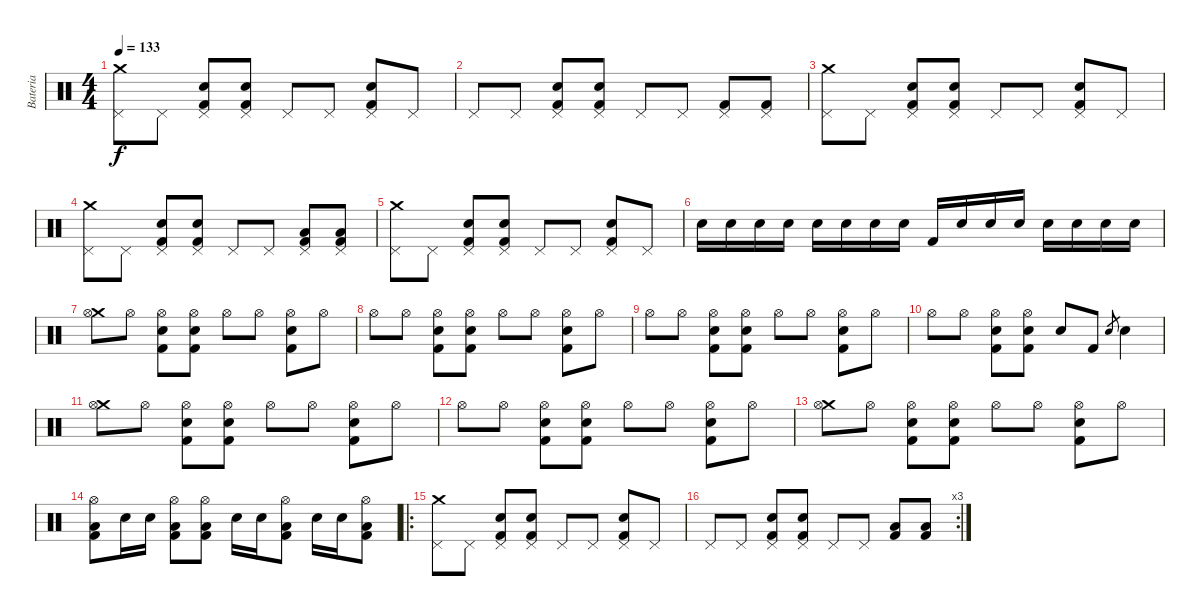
\track ("Bateria" "Bateria") {instrument percussion}
\staff {score}
\articulation defaults
\ts (4 4)
\tempo 133
\clef neutral
\ks c
("Crash medium (hit)" "Pedal Hi-Hat (hit)").8{dy f} "Pedal Hi-Hat (hit)".8 ("Kick (hit) 2" "Pedal Hi-Hat (hit)" "Electric Snare (hit)").8 ("Kick (hit) 2" "Pedal Hi-Hat (hit)" "Electric Snare (hit)").8 "Pedal Hi-Hat (hit)".8 "Pedal Hi-Hat (hit)".8 ("Kick (hit) 2" "Pedal Hi-Hat (hit)" "Electric Snare (hit)").8 "Pedal Hi-Hat (hit)".8 |
"Pedal Hi-Hat (hit)".8 "Pedal Hi-Hat (hit)".8 ("Kick (hit) 2" "Pedal Hi-Hat (hit)" "Electric Snare (hit)").8 ("Kick (hit) 2" "Pedal Hi-Hat (hit)" "Electric Snare (hit)").8 "Pedal Hi-Hat (hit)".8 "Pedal Hi-Hat (hit)".8 ("Kick (hit) 2" "Pedal Hi-Hat (hit)").8 ("Kick (hit) 2" "Pedal Hi-Hat (hit)").8 |
("Crash medium (hit)" "Pedal Hi-Hat (hit)").8 "Pedal Hi-Hat (hit)".8 ("Kick (hit) 2" "Pedal Hi-Hat (hit)" "Electric Snare (hit)").8 ("Kick (hit) 2" "Pedal Hi-Hat (hit)" "Electric Snare (hit)").8 "Pedal Hi-Hat (hit)".8 "Pedal Hi-Hat (hit)".8 ("Kick (hit) 2" "Pedal Hi-Hat (hit)" "Electric Snare (hit)").8 "Pedal Hi-Hat (hit)".8 |
("Crash medium (hit)" "Pedal Hi-Hat (hit)").8 "Pedal Hi-Hat (hit)".8 ("Kick (hit) 2" "Pedal Hi-Hat (hit)" "Electric Snare (hit)").8 ("Kick (hit) 2" "Pedal Hi-Hat (hit)" "Electric Snare (hit)").8 "Pedal Hi-Hat (hit)".8 "Pedal Hi-Hat (hit)".8 ("Kick (hit) 2" "Pedal Hi-Hat (hit)" "Low Tom (hit)").8 ("Kick (hit) 2" "Pedal Hi-Hat (hit)" "Low Tom (hit)").8 |
("Crash medium (hit)" "Pedal Hi-Hat (hit)").8 "Pedal Hi-Hat (hit)".8 ("Kick (hit) 2" "Pedal Hi-Hat (hit)" "Electric Snare (hit)").8 ("Kick (hit) 2" "Pedal Hi-Hat (hit)" "Electric Snare (hit)").8 "Pedal Hi-Hat (hit)".8 "Pedal Hi-Hat (hit)".8 ("Kick (hit) 2" "Pedal Hi-Hat (hit)" "Electric Snare (hit)").8 "Pedal Hi-Hat (hit)".8 |
"Electric Snare (hit)".16 "Electric Snare (hit)".16 "Electric Snare (hit)".16 "Electric Snare (hit)".16 "Electric Snare (hit)".16 "Electric Snare (hit)".16 "Electric Snare (hit)".16 "Electric Snare (hit)".16 "Kick (hit) 2".16 "Electric Snare (hit)".16 "Electric Snare (hit)".16 "Electric Snare (hit)".16 "Electric Snare (hit)".16 "Electric Snare (hit)".16 "Electric Snare (hit)".16 "Electric Snare (hit)".16 |
("Crash medium (hit)" "Hi-Hat (open)").8 "Hi-Hat (open)".8 ("Kick (hit) 2" "Hi-Hat (open)" "Electric Snare (hit)").8 ("Kick (hit) 2" "Hi-Hat (open)" "Electric Snare (hit)").8 "Hi-Hat (open)".8 "Hi-Hat (open)".8 ("Kick (hit) 2" "Hi-Hat (open)" "Electric Snare (hit)").8 "Hi-Hat (open)".8 |
"Hi-Hat (open)".8 "Hi-Hat (open)".8 ("Kick (hit) 2" "Hi-Hat (open)" "Electric Snare (hit)").8 ("Kick (hit) 2" "Hi-Hat (open)" "Electric Snare (hit)").8 "Hi-Hat (open)".8 "Hi-Hat (open)".8 ("Kick (hit) 2" "Hi-Hat (open)" "Electric Snare (hit)").8 "Hi-Hat (open)".8 |
"Hi-Hat (open)".8 "Hi-Hat (open)".8 ("Kick (hit) 2" "Hi-Hat (open)" "Electric Snare (hit)").8 ("Kick (hit) 2" "Hi-Hat (open)" "Electric Snare (hit)").8 "Hi-Hat (open)".8 "Hi-Hat (open)".8 ("Kick (hit) 2" "Hi-Hat (open)" "Electric Snare (hit)").8 "Hi-Hat (open)".8 |
"Hi-Hat (open)".8 "Hi-Hat (open)".8 ("Kick (hit) 2" "Hi-Hat (open)" "Electric Snare (hit)").8 ("Kick (hit) 2" "Hi-Hat (open)" "Electric Snare (hit)").8 "Electric Snare (hit)".8 "Kick (hit) 2".8 "Electric Snare (hit)".8{gr} "Electric Snare (hit)".4 |
("Crash medium (hit)" "Hi-Hat (open)").8 "Hi-Hat (open)".8 ("Kick (hit) 2" "Hi-Hat (open)" "Electric Snare (hit)").8 ("Kick (hit) 2" "Hi-Hat (open)" "Electric Snare (hit)").8 "Hi-Hat (open)".8 "Hi-Hat (open)".8 ("Kick (hit) 2" "Hi-Hat (open)" "Electric Snare (hit)").8 "Hi-Hat (open)".8 |
"Hi-Hat (open)".8 "Hi-Hat (open)".8 ("Kick (hit) 2" "Hi-Hat (open)" "Electric Snare (hit)").8 ("Kick (hit) 2" "Hi-Hat (open)" "Electric Snare (hit)").8 "Hi-Hat (open)".8 "Hi-Hat (open)".8 ("Kick (hit) 2" "Hi-Hat (open)" "Electric Snare (hit)").8 "Hi-Hat (open)".8 |
("Crash medium (hit)" "Hi-Hat (open)").8 "Hi-Hat (open)".8 ("Kick (hit) 2" "Hi-Hat (open)" "Electric Snare (hit)").8 ("Kick (hit) 2" "Hi-Hat (open)" "Electric Snare (hit)").8 "Hi-Hat (open)".8 "Hi-Hat (open)".8 ("Kick (hit) 2" "Hi-Hat (open)" "Electric Snare (hit)").8 "Hi-Hat (open)".8 |
("Kick (hit) 2" "Low Tom (hit)" "Hi-Hat (open)").8 "Electric Snare (hit)".16 "Electric Snare (hit)".16 ("Kick (hit) 2" "Low Tom (hit)" "Hi-Hat (open)").8 ("Kick (hit) 2" "Low Tom (hit)" "Hi-Hat (open)").8 "Electric Snare (hit)".16 "Electric Snare (hit)".16 ("Kick (hit) 2" "Low Tom (hit)" "Hi-Hat (open)").8 "Electric Snare (hit)".16 "Electric Snare (hit)".16 ("Kick (hit) 2" "Low Tom (hit)" "Hi-Hat (open)").8 |
\ro
("Crash medium (hit)" "Pedal Hi-Hat (hit)").8 "Pedal Hi-Hat (hit)".8 ("Kick (hit) 2" "Pedal Hi-Hat (hit)" "Electric Snare (hit)").8 ("Kick (hit) 2" "Pedal Hi-Hat (hit)" "Electric Snare (hit)").8 "Pedal Hi-Hat (hit)".8 "Pedal Hi-Hat (hit)".8 ("Kick (hit) 2" "Pedal Hi-Hat (hit)" "Electric Snare (hit)").8 "Pedal Hi-Hat (hit)".8 |
\rc 3 "Pedal Hi-Hat (hit)".8 "Pedal Hi-Hat (hit)".8
("Kick (hit) 2" "Pedal Hi-Hat (hit)" "Electric Snare (hit)").8 ("Kick (hit) 2" "Pedal Hi-Hat (hit)" "Electric Snare (hit)").8 "Pedal Hi-Hat (hit)".8 "Pedal Hi-Hat (hit)".8 ("Kick (hit) 2" "Low Tom (hit)").8 ("Kick (hit) 2" "Low Tom (hit)").8
